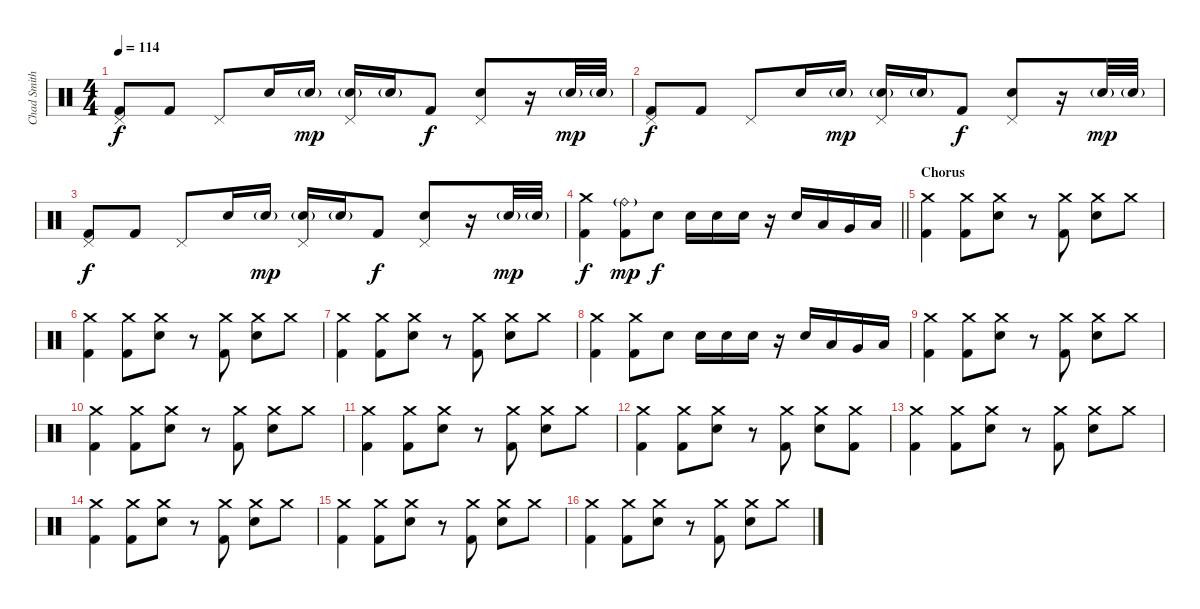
\track ("Chad Smith" "Chad Smith") {instrument percussion}
\staff {score}
\articulation defaults
\ts (4 4)
\tempo 114
\clef neutral
\ks c
("Pedal Hi-Hat (hit)" "Kick (hit) 2").8{dy f} "Kick (hit) 2".8 "Pedal Hi-Hat (hit)".8 "Snare (hit) 2".16 "Snare (hit) 2"{g}.16{dy mp} ("Pedal Hi-Hat (hit)" "Snare (hit) 2"{g}).16 "Snare (hit) 2"{g}.16 "Kick (hit) 2".8{dy f} ("Pedal Hi-Hat (hit)" "Snare (hit) 2").8 r.16 "Snare (hit) 2"{g}.32{dy mp} "Snare (hit) 2"{g}.32 |
("Pedal Hi-Hat (hit)" "Kick (hit) 2").8{dy f} "Kick (hit) 2".8 "Pedal Hi-Hat (hit)".8 "Snare (hit) 2".16 "Snare (hit) 2"{g}.16{dy mp} ("Pedal Hi-Hat (hit)" "Snare (hit) 2"{g}).16 "Snare (hit) 2"{g}.16 "Kick (hit) 2".8{dy f} ("Pedal Hi-Hat (hit)" "Snare (hit) 2").8 r.16 "Snare (hit) 2"{g}.32{dy mp} "Snare (hit) 2"{g}.32 |
("Pedal Hi-Hat (hit)" "Kick (hit) 2").8{dy f} "Kick (hit) 2".8 "Pedal Hi-Hat (hit)".8 "Snare (hit) 2".16 "Snare (hit) 2"{g}.16{dy mp} ("Pedal Hi-Hat (hit)" "Snare (hit) 2"{g}).16 "Snare (hit) 2"{g}.16 "Kick (hit) 2".8{dy f} ("Pedal Hi-Hat (hit)" "Snare (hit) 2").8 r.16 "Snare (hit) 2"{g}.32{dy mp} "Snare (hit) 2"{g}.32 |
\barLineRight lightlight
("Crash medium (hit)" "Kick (hit) 2").4{dy f} ("Ride (bell)"{g} "Kick (hit) 2").8{dy mp} "Snare (hit) 2".8{dy f} "Snare (hit) 2".16 "Snare (hit) 2".16 "Snare (hit) 2".16 r.16 "Snare (hit) 2".16 "Low Tom (hit)".16 "Very Low Tom (hit)".16 "Low Floor Tom (hit)".16 |
\section ("" "Chorus")
("Crash medium (hit)" "Kick (hit) 2").4 ("Crash medium (hit)" "Kick (hit) 2").8 ("Crash medium (hit)" "Snare (hit) 2").8 r.8 ("Crash medium (hit)" "Kick (hit) 2").8 ("Crash medium (hit)" "Snare (hit) 2").8 "Crash medium (hit)".8 |
("Crash medium (hit)" "Kick (hit) 2").4 ("Crash medium (hit)" "Kick (hit) 2").8 ("Crash medium (hit)" "Snare (hit) 2").8 r.8 ("Crash medium (hit)" "Kick (hit) 2").8 ("Crash medium (hit)" "Snare (hit) 2").8 "Crash medium (hit)".8 |
("Crash medium (hit)" "Kick (hit) 2").4 ("Crash medium (hit)" "Kick (hit) 2").8 ("Crash medium (hit)" "Snare (hit) 2").8 r.8 ("Crash medium (hit)" "Kick (hit) 2").8 ("Crash medium (hit)" "Snare (hit) 2").8 "Crash medium (hit)".8 |
("Crash medium (hit)" "Kick (hit) 2").4 ("Crash medium (hit)" "Kick (hit) 2").8 "Snare (hit) 2".8 "Snare (hit) 2".16 "Snare (hit) 2".16 "Snare (hit) 2".16 r.16 "Snare (hit) 2".16 "Low Tom (hit)".16 "Very Low Tom (hit)".16 "Low Floor Tom (hit)".16 |
("Crash medium (hit)" "Kick (hit) 2").4 ("Crash medium (hit)" "Kick (hit) 2").8 ("Crash medium (hit)" "Snare (hit) 2").8 r.8 ("Crash medium (hit)" "Kick (hit) 2").8 ("Crash medium (hit)" "Snare (hit) 2").8 "Crash medium (hit)".8 |
("Crash medium (hit)" "Kick (hit) 2").4 ("Crash medium (hit)" "Kick (hit) 2").8 ("Crash medium (hit)" "Snare (hit) 2").8 r.8 ("Crash medium (hit)" "Kick (hit) 2").8 ("Crash medium (hit)" "Snare (hit) 2").8 "Crash medium (hit)".8 |
("Crash medium (hit)" "Kick (hit) 2").4 ("Crash medium (hit)" "Kick (hit) 2").8 ("Crash medium (hit)" "Snare (hit) 2").8 r.8 ("Crash medium (hit)" "Kick (hit) 2").8 ("Crash medium (hit)" "Snare (hit) 2").8 "Crash medium (hit)".8 |
("Crash medium (hit)" "Kick (hit) 2").4 ("Crash medium (hit)" "Kick (hit) 2").8 ("Crash medium (hit)" "Snare (hit) 2").8 r.8 ("Crash medium (hit)" "Kick (hit) 2").8 ("Crash medium (hit)" "Snare (hit) 2").8 ("Crash medium (hit)" "Kick (hit) 2").8 |
("Crash medium (hit)" "Kick (hit) 2").4 ("Crash medium (hit)" "Kick (hit) 2").8 ("Crash medium (hit)" "Snare (hit) 2").8 r.8 ("Crash medium (hit)" "Kick (hit) 2").8 ("Crash medium (hit)" "Snare (hit) 2").8 "Crash medium (hit)".8 |
("Crash medium (hit)" "Kick (hit) 2").4 ("Crash medium (hit)" "Kick (hit) 2").8 ("Crash medium (hit)" "Snare (hit) 2").8 r.8 ("Crash medium (hit)" "Kick (hit) 2").8 ("Crash medium (hit)" "Snare (hit) 2").8 "Crash medium (hit)".8 |
("Crash medium (hit)" "Kick (hit) 2").4 ("Crash medium (hit)" "Kick (hit) 2").8 ("Crash medium (hit)" "Snare (hit) 2").8 r.8 ("Crash medium (hit)" "Kick (hit) 2").8 ("Crash medium (hit)" "Snare (hit) 2").8 "Crash medium (hit)".8 |
("Crash medium (hit)" "Kick (hit) 2").4 ("Crash medium (hit)" "Kick (hit) 2").8 ("Crash medium (hit)" "Snare (hit) 2").8 r.8 ("Crash medium (hit)" "Kick (hit) 2").8 ("Crash medium (hit)" "Snare (hit) 2").8 "Crash medium (hit)".8
